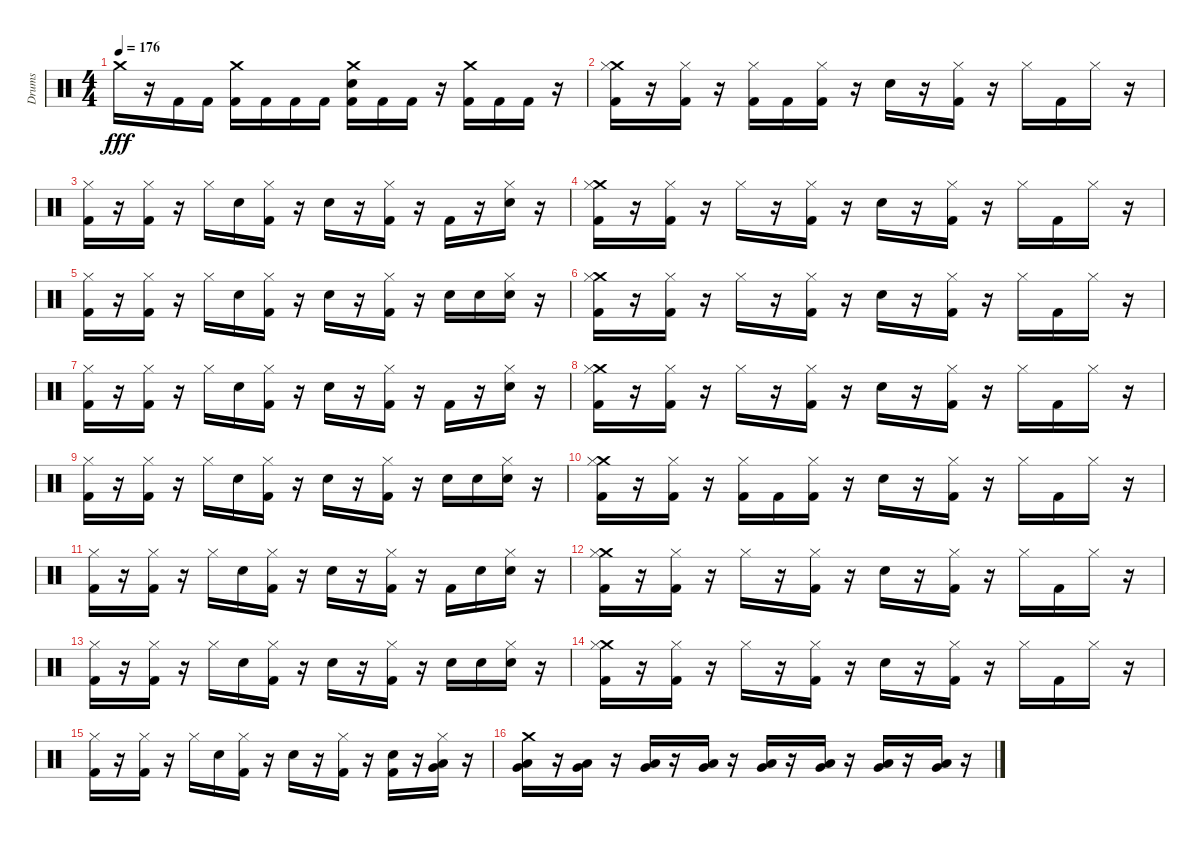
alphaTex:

\track ("Drums" "Drums") {instrument percussion}
\staff {score}
\articulation defaults
\ts (4 4)
\tempo 176
\clef neutral
\ks c "Crash medium (hit)".16{dy fff}
r.16 "Kick (hit) 2".16 "Kick (hit) 2".16 ("Crash medium (hit)" "Kick (hit) 2").16 "Kick (hit) 2".16 "Kick (hit) 2".16 "Kick (hit) 2".16 ("Crash medium (hit)" "Kick (hit) 2" "Electric Snare (hit)").16 "Kick (hit) 2".16 "Kick (hit) 2".16 r.16 ("Crash medium (hit)" "Kick (hit) 2").16 "Kick (hit) 2".16 "Kick (hit) 2".16 r.16 |
("Crash medium (hit)" "Kick (hit) 2" "Hi-Hat (closed)").16 r.16 ("Kick (hit) 2" "Hi-Hat (closed)").16 r.16 ("Kick (hit) 2" "Hi-Hat (closed)").16 "Kick (hit) 2".16 ("Kick (hit) 2" "Hi-Hat (closed)").16 r.16 "Electric Snare (hit)".16 r.16 ("Kick (hit) 2" "Hi-Hat (closed)").16 r.16 "Hi-Hat (closed)".16 "Kick (hit) 2".16 "Hi-Hat (closed)".16 r.16 |
("Kick (hit) 2" "Hi-Hat (closed)").16 r.16 ("Kick (hit) 2" "Hi-Hat (closed)").16 r.16 "Hi-Hat (closed)".16 "Electric Snare (hit)".16 ("Kick (hit) 2" "Hi-Hat (closed)").16 r.16 "Electric Snare (hit)".16 r.16 ("Kick (hit) 2" "Hi-Hat (closed)").16 r.16 "Kick (hit) 2".16 r.16 ("Electric Snare (hit)" "Hi-Hat (closed)").16 r.16 |
("Crash medium (hit)" "Kick (hit) 2" "Hi-Hat (closed)").16 r.16 ("Kick (hit) 2" "Hi-Hat (closed)").16 r.16 "Hi-Hat (closed)".16 r.16 ("Kick (hit) 2" "Hi-Hat (closed)").16 r.16 "Electric Snare (hit)".16 r.16 ("Kick (hit) 2" "Hi-Hat (closed)").16 r.16 "Hi-Hat (closed)".16 "Kick (hit) 2".16 "Hi-Hat (closed)".16 r.16 |
("Kick (hit) 2" "Hi-Hat (closed)").16 r.16 ("Kick (hit) 2" "Hi-Hat (closed)").16 r.16 "Hi-Hat (closed)".16 "Electric Snare (hit)".16 ("Kick (hit) 2" "Hi-Hat (closed)").16 r.16 "Electric Snare (hit)".16 r.16 ("Kick (hit) 2" "Hi-Hat (closed)").16 r.16 "Electric Snare (hit)".16 "Electric Snare (hit)".16 ("Electric Snare (hit)" "Hi-Hat (closed)").16 r.16 |
("Crash medium (hit)" "Kick (hit) 2" "Hi-Hat (closed)").16 r.16 ("Kick (hit) 2" "Hi-Hat (closed)").16 r.16 "Hi-Hat (closed)".16 r.16 ("Kick (hit) 2" "Hi-Hat (closed)").16 r.16 "Electric Snare (hit)".16 r.16 ("Kick (hit) 2" "Hi-Hat (closed)").16 r.16 "Hi-Hat (closed)".16 "Kick (hit) 2".16 "Hi-Hat (closed)".16 r.16 |
("Kick (hit) 2" "Hi-Hat (closed)").16 r.16 ("Kick (hit) 2" "Hi-Hat (closed)").16 r.16 "Hi-Hat (closed)".16 "Electric Snare (hit)".16 ("Kick (hit) 2" "Hi-Hat (closed)").16 r.16 "Electric Snare (hit)".16 r.16 ("Kick (hit) 2" "Hi-Hat (closed)").16 r.16 "Kick (hit) 2".16 r.16 ("Electric Snare (hit)" "Hi-Hat (closed)").16 r.16 |
("Crash medium (hit)" "Kick (hit) 2" "Hi-Hat (closed)").16 r.16 ("Kick (hit) 2" "Hi-Hat (closed)").16 r.16 "Hi-Hat (closed)".16 r.16 ("Kick (hit) 2" "Hi-Hat (closed)").16 r.16 "Electric Snare (hit)".16 r.16 ("Kick (hit) 2" "Hi-Hat (closed)").16 r.16 "Hi-Hat (closed)".16 "Kick (hit) 2".16 "Hi-Hat (closed)".16 r.16 |
("Kick (hit) 2" "Hi-Hat (closed)").16 r.16 ("Kick (hit) 2" "Hi-Hat (closed)").16 r.16 "Hi-Hat (closed)".16 "Electric Snare (hit)".16 ("Kick (hit) 2" "Hi-Hat (closed)").16 r.16 "Electric Snare (hit)".16 r.16 ("Kick (hit) 2" "Hi-Hat (closed)").16 r.16 "Electric Snare (hit)".16 "Electric Snare (hit)".16 ("Electric Snare (hit)" "Hi-Hat (closed)").16 r.16 |
("Crash medium (hit)" "Kick (hit) 2" "Hi-Hat (closed)").16 r.16 ("Kick (hit) 2" "Hi-Hat (closed)").16 r.16 ("Kick (hit) 2" "Hi-Hat (closed)").16 "Kick (hit) 2".16 ("Kick (hit) 2" "Hi-Hat (closed)").16 r.16 "Electric Snare (hit)".16 r.16 ("Kick (hit) 2" "Hi-Hat (closed)").16 r.16 "Hi-Hat (closed)".16 "Kick (hit) 2".16 "Hi-Hat (closed)".16 r.16 |
("Kick (hit) 2" "Hi-Hat (closed)").16 r.16 ("Kick (hit) 2" "Hi-Hat (closed)").16 r.16 "Hi-Hat (closed)".16 "Electric Snare (hit)".16 ("Kick (hit) 2" "Hi-Hat (closed)").16 r.16 "Electric Snare (hit)".16 r.16 ("Kick (hit) 2" "Hi-Hat (closed)").16 r.16 "Kick (hit) 2".16 "Electric Snare (hit)".16 ("Electric Snare (hit)" "Hi-Hat (closed)").16 r.16 |
("Crash medium (hit)" "Kick (hit) 2" "Hi-Hat (closed)").16 r.16 ("Kick (hit) 2" "Hi-Hat (closed)").16 r.16 "Hi-Hat (closed)".16 r.16 ("Kick (hit) 2" "Hi-Hat (closed)").16 r.16 "Electric Snare (hit)".16 r.16 ("Kick (hit) 2" "Hi-Hat (closed)").16 r.16 "Hi-Hat (closed)".16 "Kick (hit) 2".16 "Hi-Hat (closed)".16 r.16 |
("Kick (hit) 2" "Hi-Hat (closed)").16 r.16 ("Kick (hit) 2" "Hi-Hat (closed)").16 r.16 "Hi-Hat (closed)".16 "Electric Snare (hit)".16 ("Kick (hit) 2" "Hi-Hat (closed)").16 r.16 "Electric Snare (hit)".16 r.16 ("Kick (hit) 2" "Hi-Hat (closed)").16 r.16 "Electric Snare (hit)".16 "Electric Snare (hit)".16 ("Electric Snare (hit)" "Hi-Hat (closed)").16 r.16 |
("Crash medium (hit)" "Kick (hit) 2" "Hi-Hat (closed)").16 r.16 ("Kick (hit) 2" "Hi-Hat (closed)").16 r.16 "Hi-Hat (closed)".16 r.16 ("Kick (hit) 2" "Hi-Hat (closed)").16 r.16 "Electric Snare (hit)".16 r.16 ("Kick (hit) 2" "Hi-Hat (closed)").16 r.16 "Hi-Hat (closed)".16 "Kick (hit) 2".16 "Hi-Hat (closed)".16 r.16 |
("Kick (hit) 2" "Hi-Hat (closed)").16 r.16 ("Kick (hit) 2" "Hi-Hat (closed)").16 r.16 "Hi-Hat (closed)".16 "Electric Snare (hit)".16 ("Kick (hit) 2" "Hi-Hat (closed)").16 r.16 "Electric Snare (hit)".16 r.16 ("Kick (hit) 2" "Hi-Hat (closed)").16 r.16 ("Kick (hit) 2" "Electric Snare (hit)").16 r.16 ("Low Tom (hit)" "Very Low Tom (hit)" "Hi-Hat (closed)").16 r.16 |
("Very Low Tom (hit)" "Low Tom (hit)" "Crash medium (hit)").16 r.16 ("Very Low Tom (hit)" "Low Tom (hit)").16 r.16 ("Very Low Tom (hit)" "Low Tom (hit)").16 r.16 ("Very Low Tom (hit)" "Low Tom (hit)").16 r.16 ("Very Low Tom (hit)" "Low Tom (hit)").16 r.16 ("Very Low Tom (hit)" "Low Tom (hit)").16 r.16 ("Very Low Tom (hit)" "Low Tom (hit)").16 r.16 ("Very Low Tom (hit)" "Low Tom (hit)").16 r.16
